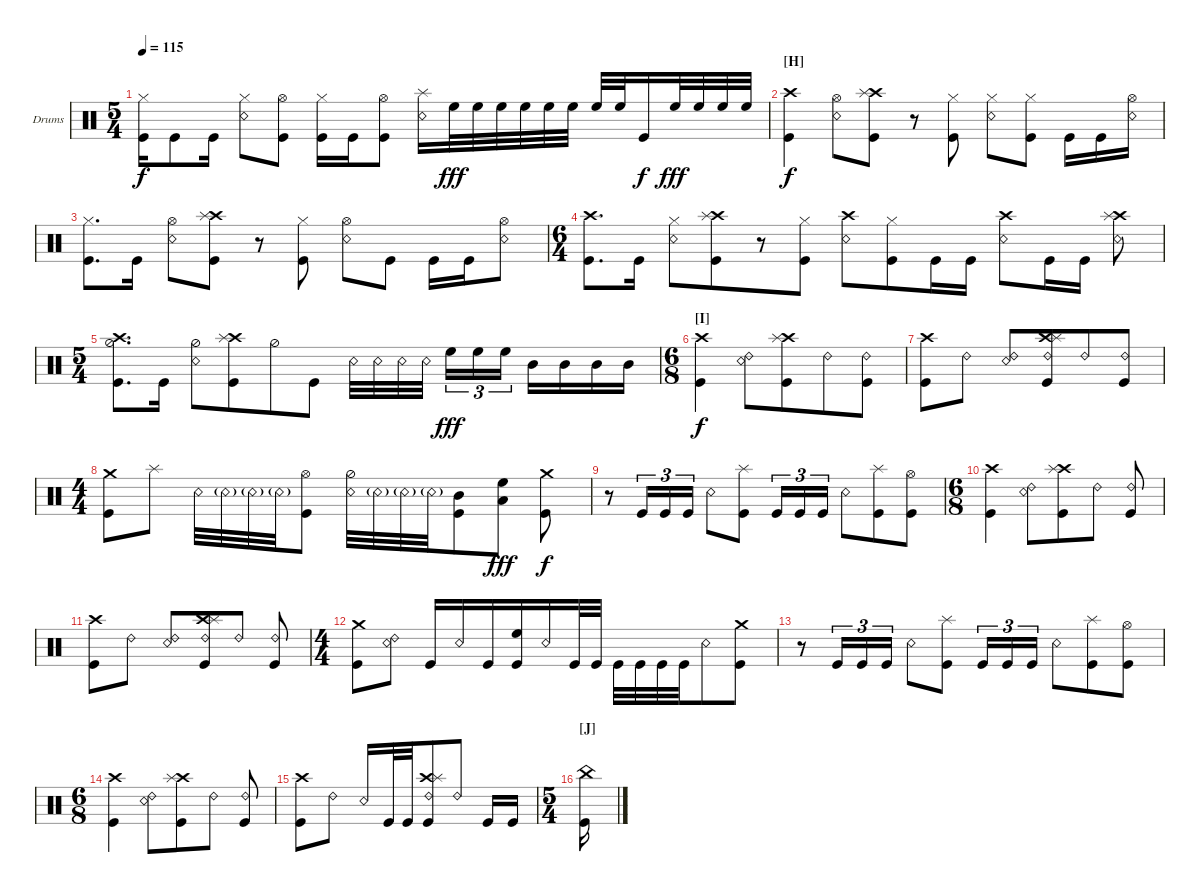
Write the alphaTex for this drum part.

\defaultSystemsLayout 4
\bracketExtendMode groupsimilarinstruments
\firstSystemTrackNameOrientation horizontal
\otherSystemsTrackNameOrientation horizontal
\track ("Drumkit" "Drums") {instrument percussion}
\staff {score}
\articulation defaults
\ts (5 4)
\tempo 115
\clef neutral
\scale
0.333333
\ks c
("Kick (hit)" "Hi-Hat (closed)").16{dy f} "Kick (hit)".8 "Kick (hit)".16 ("Snare (rim shot)" "Hi-Hat (closed)").8 ("Hi-Hat (open)" "Kick (hit)").8 ("Kick (hit)" "Hi-Hat (closed)").16 "Kick (hit)".16 ("Kick (hit)" "Hi-Hat (open)").8 ("Snare (rim shot)" "Splash (hit)").16 "High Floor Tom (hit)".32{dy fff} "High Floor Tom (hit)".32 "High Floor Tom (hit)".32 "High Floor Tom (hit)".32 "High Floor Tom (hit)".32 "High Floor Tom (hit)".32 "High Floor Tom (hit)".32 "High Floor Tom (hit)".32 "Kick (hit)".16{dy f} "High Floor Tom (hit)".32{dy fff} "High Floor Tom (hit)".32 "High Floor Tom (hit)".32 "High Floor Tom (hit)".32 |
\section ("H" "")
\scale
0.333333 ("Kick (hit)" "Crash high (hit)").4{dy f} ("Snare (rim shot)" "Hi-Hat (open)").8 ("Kick (hit)" "Crash high (hit)" "Splash (hit)").8 r.8 ("Kick (hit)" "Hi-Hat (closed)").8 ("Snare (rim shot)" "Hi-Hat (closed)").8 ("Kick (hit)" "Hi-Hat (closed)").8 "Kick (hit)".16 "Kick (hit)".16 ("Snare (rim shot)" "Hi-Hat (open)").16 |
\scale
0.333333 ("Kick (hit)" "Hi-Hat (closed)").8{d} "Kick (hit)".16 ("Snare (rim shot)" "Hi-Hat (open)").8 ("Kick (hit)" "Crash high (hit)" "Splash (hit)").8 r.8 ("Kick (hit)" "Hi-Hat (closed)").8 ("Snare (rim shot)" "Hi-Hat (open)").8 "Kick (hit)".8 "Kick (hit)".16 "Kick (hit)".16 ("Snare (rim shot)" "Hi-Hat (open)").8 |
\ts (6 4)
\beaming (8 2 4 3 2 1)
\scale
0.333333 ("Kick (hit)" "Crash high (hit)").8{d} "Kick (hit)".16 ("Snare (rim shot)" "Hi-Hat (closed)").8 ("Kick (hit)" "Crash high (hit)" "Splash (hit)").8 r.8 ("Kick (hit)" "Hi-Hat (closed)").8 ("Snare (rim shot)" "Crash high (hit)").8 ("Kick (hit)" "Hi-Hat (closed)").8 "Kick (hit)".16 "Kick (hit)".16 ("Snare (rim shot)" "Crash high (hit)").8 "Kick (hit)".16 "Kick (hit)".16 ("Snare (rim shot)" "Crash high (hit)" "Splash (hit)").8 |
\ts (5 4)
\beaming (8 2 4 2 2)
\scale
0.333333 ("Kick (hit)" "Hi-Hat (half)" "Crash high (hit)").8{d} "Kick (hit)".16 ("Snare (rim shot)" "Hi-Hat (half)").8 ("Kick (hit)" "Crash high (hit)" "Splash (hit)").8 "Hi-Hat (half)".8 "Kick (hit)".8 "Snare (rim shot)".32 "Snare (rim shot)".32 "Snare (rim shot)".32 "Snare (rim shot)".32 "High Floor Tom (hit)".16{tu (3 2) dy fff} "High Floor Tom (hit)".16{tu (3 2)} "High Floor Tom (hit)".16{tu (3 2)} "Mid Tom (hit)".16 "Mid Tom (hit)".16 "Mid Tom (hit)".16 "Mid Tom (hit)".16 |
\ts (6 8)
\section ("I" "")
\scale
0.333333 ("Kick (hit)" "Crash high (hit)").4{dy f} ("Ride (bell) 2" "Snare (rim shot)").8 ("Crash high (hit)" "Splash (hit)" "Kick (hit)").8 "Ride (bell) 2".8 ("Ride (bell) 2" "Kick (hit)").8 |
\scale
0.263889 ("Kick (hit)" "Crash high (hit)").8 "Ride (bell) 2".8 ("Ride (bell) 2" "Snare (rim shot)").8 ("Crash high (hit)" "Splash (hit)" "Kick (hit)" "Ride (bell) 2").8 "Ride (bell) 2".8 ("Ride (bell) 2" "Kick (hit)").8 |
\ts (4 4)
\beaming (8 2 2 3 1)
\scale
0.472222 ("Kick (hit)" "Crash medium (hit)").8 "Splash (hit)".8 "Snare (rim shot)".32 "Snare (rim shot)"{g}.32 "Snare (rim shot)"{g}.32 "Snare (rim shot)"{g}.32 ("Hi-Hat (open)" "Kick (hit)").8 ("Snare (rim shot)" "Hi-Hat (half)").32 "Snare (rim shot)"{g}.32 "Snare (rim shot)"{g}.32 "Snare (rim shot)"{g}.32 ("Mid Tom (hit)" "Kick (hit)").8 ("High Floor Tom (hit)" "Low Tom (hit)").8{dy fff} ("Crash medium (hit)" "Kick (hit)").8{dy f} |
\beaming (8 2 3 3)
\scale
0.263889 r.8 "Kick (hit)".16{tu (3 2)} "Kick (hit)".16{tu (3 2)} "Kick (hit)".16{tu (3 2)} "Snare (rim shot)".8 ("Splash (hit)" "Kick (hit)").8 "Kick (hit)".16{tu (3 2)} "Kick (hit)".16{tu (3 2)} "Kick (hit)".16{tu (3 2)} "Snare (rim shot)".8 ("Kick (hit)" "Splash (hit)").8 ("Kick (hit)" "Hi-Hat (open)").8 |
\ts (6 8)
\scale
0.390805 ("Kick (hit)" "Crash high (hit)").4 ("Ride (bell) 2" "Snare (rim shot)").8 ("Crash high (hit)" "Splash (hit)" "Kick (hit)").8 "Ride (bell) 2".8 ("Ride (bell) 2" "Kick (hit)").8 |
\scale
0.218391 ("Kick (hit)" "Crash high (hit)").8 "Ride (bell) 2".8 ("Ride (bell) 2" "Snare (rim shot)").8 ("Crash high (hit)" "Splash (hit)" "Kick (hit)" "Ride (bell) 2").8 "Ride (bell) 2".8 ("Ride (bell) 2" "Kick (hit)").8 |
\ts (4 4)
\scale
0.390805 ("Kick (hit)" "Crash medium (hit)").8 ("Snare (rim shot)" "Ride (bell) 2").8 "Kick (hit)".16 "Snare (rim shot)".16 "Kick (hit)".16 ("Kick (hit)" "High Floor Tom (hit)").16 "Snare (rim shot)".16 "Kick (hit)".32 "Kick (hit)".32 "Kick (hit)".32 "Kick (hit)".32 "Kick (hit)".32 "Kick (hit)".32 "Snare (rim shot)".8 ("Kick (hit)" "Crash medium (hit)").8 |
\scale
0.263889 r.8 "Kick (hit)".16{tu (3 2)} "Kick (hit)".16{tu (3 2)} "Kick (hit)".16{tu (3 2)} "Snare (rim shot)".8 ("Splash (hit)" "Kick (hit)").8 "Kick (hit)".16{tu (3 2)} "Kick (hit)".16{tu (3 2)} "Kick (hit)".16{tu (3 2)} "Snare (rim shot)".8 ("Splash (hit)" "Kick (hit)").8 ("Hi-Hat (open)" "Kick (hit)").8 |
\ts (6 8)
\scale
0.472222 ("Kick (hit)" "Crash high (hit)").4 ("Ride (bell) 2" "Snare (rim shot)").8 ("Crash high (hit)" "Splash (hit)" "Kick (hit)").8 "Ride (bell) 2".8 ("Ride (bell) 2" "Kick (hit)").8 |
\scale
0.263889 ("Kick (hit)" "Crash high (hit)").8 "Ride (bell) 2".8 "Snare (rim shot)".16 "Kick (hit)".32 "Kick (hit)".32 ("Crash high (hit)" "Splash (hit)" "Kick (hit)" "Ride (bell) 2").8 "Ride (bell) 2".8 "Kick (hit)".16 "Kick (hit)".16 |
\ts (5 4)
\beaming (8 2 4 3 1)
\section ("J" "")
\scale
0.472222 ("Kick (hit)" "China (hit)").16
